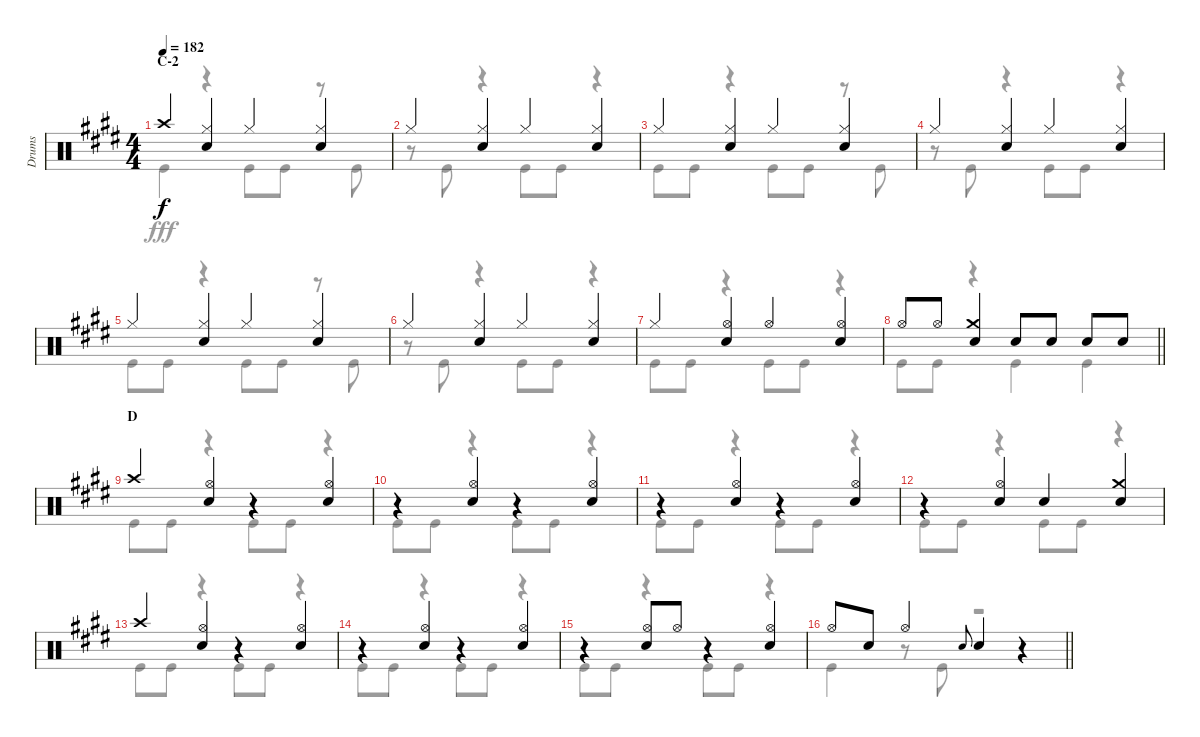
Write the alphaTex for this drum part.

\track ("Drums" "Drums") {instrument percussion}
\staff {score}
\articulation defaults
\voice
\ts (4 4)
\section ("" "C-2")
\tempo 182
\clef neutral
\ks e "Crash high (hit)".4{dy f}
("Hi-Hat (closed)" "Snare (hit) 2").4 "Hi-Hat (closed)".4 ("Hi-Hat (closed)" "Snare (hit) 2").4 |
"Hi-Hat (closed)".4 ("Hi-Hat (closed)" "Snare (hit) 2").4 "Hi-Hat (closed)".4 ("Hi-Hat (closed)" "Snare (hit) 2").4 |
"Hi-Hat (closed)".4 ("Hi-Hat (closed)" "Snare (hit) 2").4 "Hi-Hat (closed)".4 ("Hi-Hat (closed)" "Snare (hit) 2").4 |
"Hi-Hat (closed)".4 ("Hi-Hat (closed)" "Snare (hit) 2").4 "Hi-Hat (closed)".4 ("Hi-Hat (closed)" "Snare (hit) 2").4 |
"Hi-Hat (closed)".4 ("Hi-Hat (closed)" "Snare (hit) 2").4 "Hi-Hat (closed)".4 ("Hi-Hat (closed)" "Snare (hit) 2").4 |
"Hi-Hat (closed)".4 ("Hi-Hat (closed)" "Snare (hit) 2").4 "Hi-Hat (closed)".4 ("Hi-Hat (closed)" "Snare (hit) 2").4 |
"Hi-Hat (closed)".4 ("Hi-Hat (open)" "Snare (hit) 2").4 "Hi-Hat (open)".4 ("Hi-Hat (open)" "Snare (hit) 2").4 |
\barLineRight lightlight "Hi-Hat (open)".8 "Hi-Hat (open)".8
("Crash medium (hit)" "Snare (hit) 2").4 "Snare (hit) 2".8 "Snare (hit) 2".8 "Snare (hit) 2".8 "Snare (hit) 2".8 |
\section ("" "D")
"Crash high (hit)".4 ("Hi-Hat (open)" "Snare (hit) 2").4 r.4 ("Hi-Hat (open)" "Snare (hit) 2").4 |
r.4 ("Hi-Hat (open)" "Snare (hit) 2").4 r.4 ("Hi-Hat (open)" "Snare (hit) 2").4 |
r.4 ("Hi-Hat (open)" "Snare (hit) 2").4 r.4 ("Hi-Hat (open)" "Snare (hit) 2").4 |
r.4 ("Hi-Hat (open)" "Snare (hit) 2").4 "Snare (hit) 2".4 ("Crash medium (hit)" "Snare (hit) 2").4 |
"Crash high (hit)".4 ("Hi-Hat (open)" "Snare (hit) 2").4 r.4 ("Hi-Hat (open)" "Snare (hit) 2").4 |
r.4 ("Hi-Hat (open)" "Snare (hit) 2").4 r.4 ("Hi-Hat (open)" "Snare (hit) 2").4 |
r.4 ("Hi-Hat (open)" "Snare (hit) 2").8 "Hi-Hat (open)".8 r.4 ("Hi-Hat (open)" "Snare (hit) 2").4 |
\barLineRight lightlight "Hi-Hat (open)".8 "Snare (hit) 2".8 "Hi-Hat (open)".4 "Snare (hit) 2".8{gr onbeat} "Snare (hit) 2".4
r.4
\voice
\clef neutral
\ottava regular
\simile none
\ks e "Kick (hit)".4{dy fff}
r.4 "Kick (hit)".8 "Kick (hit)".8 r.8 "Kick (hit)".8 |
r.8 "Kick (hit)".8 r.4 "Kick (hit)".8 "Kick (hit)".8 r.4 |
"Kick (hit)".8 "Kick (hit)".8 r.4 "Kick (hit)".8 "Kick (hit)".8 r.8 "Kick (hit)".8 |
r.8 "Kick (hit)".8 r.4 "Kick (hit)".8 "Kick (hit)".8 r.4 |
"Kick (hit)".8 "Kick (hit)".8 r.4 "Kick (hit)".8 "Kick (hit)".8 r.8 "Kick (hit)".8 |
r.8 "Kick (hit)".8 r.4 "Kick (hit)".8 "Kick (hit)".8 r.4 |
"Kick (hit)".8 "Kick (hit)".8 r.4 "Kick (hit)".8 "Kick (hit)".8 r.4 |
\barLineRight lightlight "Kick (hit)".8 "Kick (hit)".8
r.4 "Kick (hit)".4 "Kick (hit)".4 |
"Kick (hit)".8 "Kick (hit)".8 r.4 "Kick (hit)".8 "Kick (hit)".8 r.4 |
"Kick (hit)".8 "Kick (hit)".8 r.4 "Kick (hit)".8 "Kick (hit)".8 r.4 |
"Kick (hit)".8 "Kick (hit)".8 r.4 "Kick (hit)".8 "Kick (hit)".8 r.4 |
"Kick (hit)".8 "Kick (hit)".8 r.4 "Kick (hit)".8 "Kick (hit)".8 r.4 |
"Kick (hit)".8 "Kick (hit)".8 r.4 "Kick (hit)".8 "Kick (hit)".8 r.4 |
"Kick (hit)".8 "Kick (hit)".8 r.4 "Kick (hit)".8 "Kick (hit)".8 r.4 |
"Kick (hit)".8 "Kick (hit)".8 r.4 "Kick (hit)".8 "Kick (hit)".8 r.4 |
\barLineRight lightlight "Kick (hit)".4
r.8 "Kick (hit)".8 r.2
